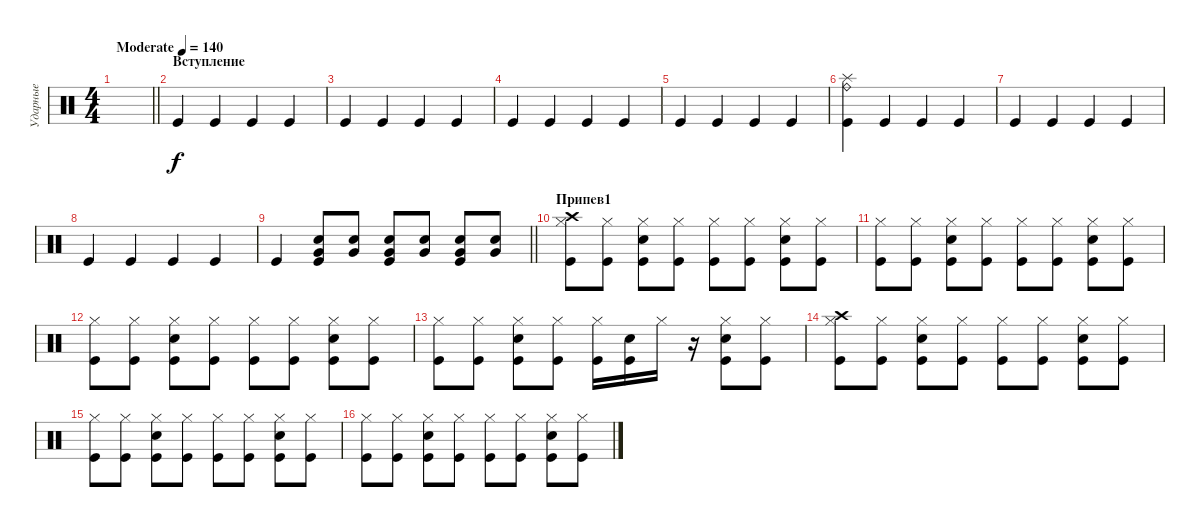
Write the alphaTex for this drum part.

\track ("Ударные" "Ударные") {instrument percussion}
\staff {score}
\articulation defaults
\ts (4 4)
\tempo (140 "Moderate")
\clef neutral
\barLineRight lightlight
\ks c
|
\section ("" "Вступление")
"Kick (hit)".4 "Kick (hit)".4 "Kick (hit)".4 "Kick (hit)".4 |
"Kick (hit)".4 "Kick (hit)".4 "Kick (hit)".4 "Kick (hit)".4 |
"Kick (hit)".4 "Kick (hit)".4 "Kick (hit)".4 "Kick (hit)".4 |
"Kick (hit)".4 "Kick (hit)".4 "Kick (hit)".4 "Kick (hit)".4 |
("Kick (hit)" "Ride (bell)" "Splash (hit)").4 "Kick (hit)".4 "Kick (hit)".4 "Kick (hit)".4 |
"Kick (hit)".4 "Kick (hit)".4 "Kick (hit)".4 "Kick (hit)".4 |
"Kick (hit)".4 "Kick (hit)".4 "Kick (hit)".4 "Kick (hit)".4 |
\barLineRight lightlight "Kick (hit)".4
("Kick (hit)" "Snare (hit) 2" "Very Low Tom (hit)").8 ("Snare (hit) 2" "Very Low Tom (hit)").8 ("Kick (hit)" "Snare (hit) 2" "Very Low Tom (hit)").8 ("Snare (hit) 2" "Very Low Tom (hit)").8 ("Kick (hit)" "Snare (hit) 2" "Very Low Tom (hit)").8 ("Snare (hit) 2" "Very Low Tom (hit)").8 |
\section ("" "Припев1")
("Hi-Hat (closed)" "Kick (hit)" "Crash high (hit)").8 ("Hi-Hat (closed)" "Kick (hit)").8 ("Hi-Hat (closed)" "Kick (hit)" "Snare (hit) 2").8 ("Hi-Hat (closed)" "Kick (hit)").8 ("Hi-Hat (closed)" "Kick (hit)").8 ("Hi-Hat (closed)" "Kick (hit)").8 ("Hi-Hat (closed)" "Kick (hit)" "Snare (hit) 2").8 ("Hi-Hat (closed)" "Kick (hit)").8 |
("Hi-Hat (closed)" "Kick (hit)").8 ("Hi-Hat (closed)" "Kick (hit)").8 ("Hi-Hat (closed)" "Kick (hit)" "Snare (hit) 2").8 ("Hi-Hat (closed)" "Kick (hit)").8 ("Hi-Hat (closed)" "Kick (hit)").8 ("Hi-Hat (closed)" "Kick (hit)").8 ("Hi-Hat (closed)" "Kick (hit)" "Snare (hit) 2").8 ("Hi-Hat (closed)" "Kick (hit)").8 |
("Hi-Hat (closed)" "Kick (hit)").8 ("Hi-Hat (closed)" "Kick (hit)").8 ("Hi-Hat (closed)" "Kick (hit)" "Snare (hit) 2").8 ("Hi-Hat (closed)" "Kick (hit)").8 ("Hi-Hat (closed)" "Kick (hit)").8 ("Hi-Hat (closed)" "Kick (hit)").8 ("Hi-Hat (closed)" "Kick (hit)" "Snare (hit) 2").8 ("Hi-Hat (closed)" "Kick (hit)").8 |
("Hi-Hat (closed)" "Kick (hit)").8 ("Hi-Hat (closed)" "Kick (hit)").8 ("Hi-Hat (closed)" "Kick (hit)" "Snare (hit) 2").8 ("Hi-Hat (closed)" "Kick (hit)").8 ("Hi-Hat (closed)" "Kick (hit)").16 ("Kick (hit)" "Snare (hit) 2").16 "Hi-Hat (closed)".16 r.16 ("Hi-Hat (closed)" "Kick (hit)" "Snare (hit) 2").8 ("Hi-Hat (closed)" "Kick (hit)").8 |
("Hi-Hat (closed)" "Kick (hit)" "Crash high (hit)").8 ("Hi-Hat (closed)" "Kick (hit)").8 ("Hi-Hat (closed)" "Kick (hit)" "Snare (hit) 2").8 ("Hi-Hat (closed)" "Kick (hit)").8 ("Hi-Hat (closed)" "Kick (hit)").8 ("Hi-Hat (closed)" "Kick (hit)").8 ("Hi-Hat (closed)" "Kick (hit)" "Snare (hit) 2").8 ("Hi-Hat (closed)" "Kick (hit)").8 |
("Hi-Hat (closed)" "Kick (hit)").8 ("Hi-Hat (closed)" "Kick (hit)").8 ("Hi-Hat (closed)" "Kick (hit)" "Snare (hit) 2").8 ("Hi-Hat (closed)" "Kick (hit)").8 ("Hi-Hat (closed)" "Kick (hit)").8 ("Hi-Hat (closed)" "Kick (hit)").8 ("Hi-Hat (closed)" "Kick (hit)" "Snare (hit) 2").8 ("Hi-Hat (closed)" "Kick (hit)").8 |
("Hi-Hat (closed)" "Kick (hit)").8 ("Hi-Hat (closed)" "Kick (hit)").8 ("Hi-Hat (closed)" "Kick (hit)" "Snare (hit) 2").8 ("Hi-Hat (closed)" "Kick (hit)").8 ("Hi-Hat (closed)" "Kick (hit)").8 ("Hi-Hat (closed)" "Kick (hit)").8 ("Hi-Hat (closed)" "Kick (hit)" "Snare (hit) 2").8 ("Hi-Hat (closed)" "Kick (hit)").8
